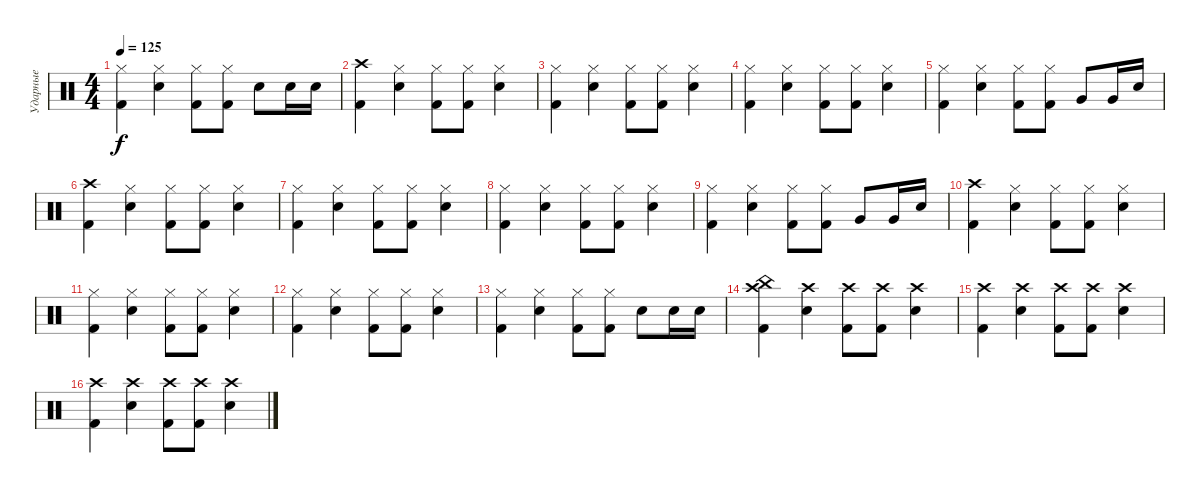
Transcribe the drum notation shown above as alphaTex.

\track ("Ударные" "Ударные") {instrument percussion}
\staff {score}
\articulation defaults
\ts (4 4)
\tempo 125
\clef neutral
\ks c
("Hi-Hat (closed)" "Kick (hit) 2").4{dy f} ("Hi-Hat (closed)" "Snare (hit) 2").4 ("Hi-Hat (closed)" "Kick (hit) 2").8 ("Hi-Hat (closed)" "Kick (hit) 2").8 "Snare (hit) 2".8 "Snare (hit) 2".16 "Snare (hit) 2".16 |
("Crash high (hit)" "Kick (hit) 2").4 ("Hi-Hat (closed)" "Snare (hit) 2").4 ("Hi-Hat (closed)" "Kick (hit) 2").8 ("Hi-Hat (closed)" "Kick (hit) 2").8 ("Hi-Hat (closed)" "Snare (hit) 2").4 |
("Hi-Hat (closed)" "Kick (hit) 2").4 ("Hi-Hat (closed)" "Snare (hit) 2").4 ("Hi-Hat (closed)" "Kick (hit) 2").8 ("Hi-Hat (closed)" "Kick (hit) 2").8 ("Hi-Hat (closed)" "Snare (hit) 2").4 |
("Hi-Hat (closed)" "Kick (hit) 2").4 ("Hi-Hat (closed)" "Snare (hit) 2").4 ("Hi-Hat (closed)" "Kick (hit) 2").8 ("Hi-Hat (closed)" "Kick (hit) 2").8 ("Hi-Hat (closed)" "Snare (hit) 2").4 |
("Hi-Hat (closed)" "Kick (hit) 2").4 ("Hi-Hat (closed)" "Snare (hit) 2").4 ("Hi-Hat (closed)" "Kick (hit) 2").8 ("Hi-Hat (closed)" "Kick (hit) 2").8 "Very Low Tom (hit)".8 "Very Low Tom (hit)".16 "Snare (hit) 2".16 |
("Crash high (hit)" "Kick (hit) 2").4 ("Hi-Hat (closed)" "Snare (hit) 2").4 ("Hi-Hat (closed)" "Kick (hit) 2").8 ("Hi-Hat (closed)" "Kick (hit) 2").8 ("Hi-Hat (closed)" "Snare (hit) 2").4 |
("Hi-Hat (closed)" "Kick (hit) 2").4 ("Hi-Hat (closed)" "Snare (hit) 2").4 ("Hi-Hat (closed)" "Kick (hit) 2").8 ("Hi-Hat (closed)" "Kick (hit) 2").8 ("Hi-Hat (closed)" "Snare (hit) 2").4 |
("Hi-Hat (closed)" "Kick (hit) 2").4 ("Hi-Hat (closed)" "Snare (hit) 2").4 ("Hi-Hat (closed)" "Kick (hit) 2").8 ("Hi-Hat (closed)" "Kick (hit) 2").8 ("Hi-Hat (closed)" "Snare (hit) 2").4 |
("Hi-Hat (closed)" "Kick (hit) 2").4 ("Hi-Hat (closed)" "Snare (hit) 2").4 ("Hi-Hat (closed)" "Kick (hit) 2").8 ("Hi-Hat (closed)" "Kick (hit) 2").8 "Very Low Tom (hit)".8 "Very Low Tom (hit)".16 "Snare (hit) 2".16 |
("Crash high (hit)" "Kick (hit) 2").4 ("Hi-Hat (closed)" "Snare (hit) 2").4 ("Hi-Hat (closed)" "Kick (hit) 2").8 ("Hi-Hat (closed)" "Kick (hit) 2").8 ("Hi-Hat (closed)" "Snare (hit) 2").4 |
("Hi-Hat (closed)" "Kick (hit) 2").4 ("Hi-Hat (closed)" "Snare (hit) 2").4 ("Hi-Hat (closed)" "Kick (hit) 2").8 ("Hi-Hat (closed)" "Kick (hit) 2").8 ("Hi-Hat (closed)" "Snare (hit) 2").4 |
("Hi-Hat (closed)" "Kick (hit) 2").4 ("Hi-Hat (closed)" "Snare (hit) 2").4 ("Hi-Hat (closed)" "Kick (hit) 2").8 ("Hi-Hat (closed)" "Kick (hit) 2").8 ("Hi-Hat (closed)" "Snare (hit) 2").4 |
("Hi-Hat (closed)" "Kick (hit) 2").4 ("Hi-Hat (closed)" "Snare (hit) 2").4 ("Hi-Hat (closed)" "Kick (hit) 2").8 ("Hi-Hat (closed)" "Kick (hit) 2").8 "Snare (hit) 2".8 "Snare (hit) 2".16 "Snare (hit) 2".16 |
("China (hit)" "Crash high (hit)" "Kick (hit) 2").4 ("Crash high (hit)" "Snare (hit) 2").4 ("Crash high (hit)" "Kick (hit) 2").8 ("Crash high (hit)" "Kick (hit) 2").8 ("Crash high (hit)" "Snare (hit) 2").4 |
("Crash high (hit)" "Kick (hit) 2").4 ("Crash high (hit)" "Snare (hit) 2").4 ("Crash high (hit)" "Kick (hit) 2").8 ("Crash high (hit)" "Kick (hit) 2").8 ("Crash high (hit)" "Snare (hit) 2").4 |
("Crash high (hit)" "Kick (hit) 2").4 ("Crash high (hit)" "Snare (hit) 2").4 ("Crash high (hit)" "Kick (hit) 2").8 ("Crash high (hit)" "Kick (hit) 2").8 ("Crash high (hit)" "Snare (hit) 2").4
